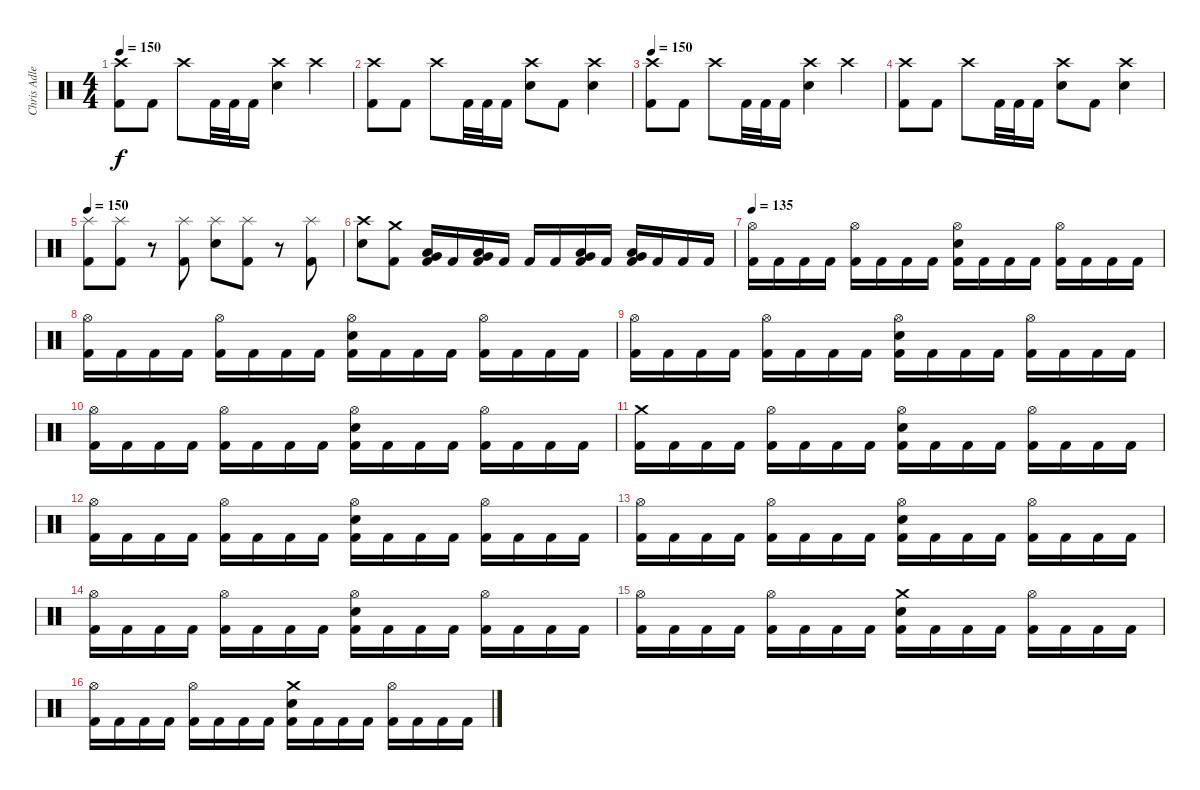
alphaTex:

\track ("Chris Adler" "Chris Adle") {instrument percussion}
\staff {score}
\articulation defaults
\ts (4 4)
\tempo 150
\clef neutral
\ks c
("Crash high (hit)" "Kick (hit) 2").8{dy f} "Kick (hit) 2".8 "Crash high (hit)".8 "Kick (hit) 2".32 "Kick (hit) 2".32 "Kick (hit) 2".16 ("Crash high (hit)" "Snare (hit) 2").4 "Crash high (hit)".4 |
("Crash high (hit)" "Kick (hit) 2").8 "Kick (hit) 2".8 "Crash high (hit)".8 "Kick (hit) 2".32 "Kick (hit) 2".32 "Kick (hit) 2".16 ("Crash high (hit)" "Snare (hit) 2").8 "Kick (hit) 2".8 ("Crash high (hit)" "Snare (hit) 2").4 |
\tempo 150
("Crash high (hit)" "Kick (hit) 2").8 "Kick (hit) 2".8 "Crash high (hit)".8 "Kick (hit) 2".32 "Kick (hit) 2".32 "Kick (hit) 2".16 ("Crash high (hit)" "Snare (hit) 2").4 "Crash high (hit)".4 |
("Crash high (hit)" "Kick (hit) 2").8 "Kick (hit) 2".8 "Crash high (hit)".8 "Kick (hit) 2".32 "Kick (hit) 2".32 "Kick (hit) 2".16 ("Crash high (hit)" "Snare (hit) 2").8 "Kick (hit) 2".8 ("Crash high (hit)" "Snare (hit) 2").4 |
\tempo 150
("Splash (hit)" "Kick (hit) 2").8 ("Splash (hit)" "Kick (hit) 2").8 r.8 ("Splash (hit)" "Kick (hit) 2").8 ("Splash (hit)" "Snare (hit) 2").8 ("Splash (hit)" "Kick (hit) 2").8 r.8 ("Splash (hit)" "Kick (hit) 2").8 |
("Crash high (hit)" "Snare (hit) 2").8 ("Crash medium (hit)" "Kick (hit) 2").8 ("Low Tom (hit)" "Very Low Tom (hit)" "Kick (hit) 2").16 "Kick (hit) 2".16 ("Low Tom (hit)" "Very Low Tom (hit)" "Kick (hit) 2").16 "Kick (hit) 2".16 "Kick (hit) 2".16 "Kick (hit) 2".16 ("Low Tom (hit)" "Very Low Tom (hit)" "Kick (hit) 2").16 "Kick (hit) 2".16 ("Low Tom (hit)" "Very Low Tom (hit)" "Kick (hit) 2").16 "Kick (hit) 2".16 "Kick (hit) 2".16 "Kick (hit) 2".16 |
\tempo 120
\tempo 135
("Hi-Hat (open)" "Kick (hit) 2").16 "Kick (hit) 2".16 "Kick (hit) 2".16 "Kick (hit) 2".16 ("Hi-Hat (open)" "Kick (hit) 2").16 "Kick (hit) 2".16 "Kick (hit) 2".16 "Kick (hit) 2".16 ("Hi-Hat (open)" "Snare (hit) 2" "Kick (hit) 2").16 "Kick (hit) 2".16 "Kick (hit) 2".16 "Kick (hit) 2".16 ("Hi-Hat (open)" "Kick (hit) 2").16 "Kick (hit) 2".16 "Kick (hit) 2".16 "Kick (hit) 2".16 |
("Hi-Hat (open)" "Kick (hit) 2").16 "Kick (hit) 2".16 "Kick (hit) 2".16 "Kick (hit) 2".16 ("Hi-Hat (open)" "Kick (hit) 2").16 "Kick (hit) 2".16 "Kick (hit) 2".16 "Kick (hit) 2".16 ("Hi-Hat (open)" "Snare (hit) 2" "Kick (hit) 2").16 "Kick (hit) 2".16 "Kick (hit) 2".16 "Kick (hit) 2".16 ("Hi-Hat (open)" "Kick (hit) 2").16 "Kick (hit) 2".16 "Kick (hit) 2".16 "Kick (hit) 2".16 |
("Hi-Hat (open)" "Kick (hit) 2").16 "Kick (hit) 2".16 "Kick (hit) 2".16 "Kick (hit) 2".16 ("Hi-Hat (open)" "Kick (hit) 2").16 "Kick (hit) 2".16 "Kick (hit) 2".16 "Kick (hit) 2".16 ("Hi-Hat (open)" "Snare (hit) 2" "Kick (hit) 2").16 "Kick (hit) 2".16 "Kick (hit) 2".16 "Kick (hit) 2".16 ("Hi-Hat (open)" "Kick (hit) 2").16 "Kick (hit) 2".16 "Kick (hit) 2".16 "Kick (hit) 2".16 |
("Hi-Hat (open)" "Kick (hit) 2").16 "Kick (hit) 2".16 "Kick (hit) 2".16 "Kick (hit) 2".16 ("Hi-Hat (open)" "Kick (hit) 2").16 "Kick (hit) 2".16 "Kick (hit) 2".16 "Kick (hit) 2".16 ("Hi-Hat (open)" "Snare (hit) 2" "Kick (hit) 2").16 "Kick (hit) 2".16 "Kick (hit) 2".16 "Kick (hit) 2".16 ("Hi-Hat (open)" "Kick (hit) 2").16 "Kick (hit) 2".16 "Kick (hit) 2".16 "Kick (hit) 2".16 |
("Crash medium (hit)" "Kick (hit) 2").16 "Kick (hit) 2".16 "Kick (hit) 2".16 "Kick (hit) 2".16 ("Hi-Hat (open)" "Kick (hit) 2").16 "Kick (hit) 2".16 "Kick (hit) 2".16 "Kick (hit) 2".16 ("Hi-Hat (open)" "Snare (hit) 2" "Kick (hit) 2").16 "Kick (hit) 2".16 "Kick (hit) 2".16 "Kick (hit) 2".16 ("Hi-Hat (open)" "Kick (hit) 2").16 "Kick (hit) 2".16 "Kick (hit) 2".16 "Kick (hit) 2".16 |
("Hi-Hat (open)" "Kick (hit) 2").16 "Kick (hit) 2".16 "Kick (hit) 2".16 "Kick (hit) 2".16 ("Hi-Hat (open)" "Kick (hit) 2").16 "Kick (hit) 2".16 "Kick (hit) 2".16 "Kick (hit) 2".16 ("Hi-Hat (open)" "Snare (hit) 2" "Kick (hit) 2").16 "Kick (hit) 2".16 "Kick (hit) 2".16 "Kick (hit) 2".16 ("Hi-Hat (open)" "Kick (hit) 2").16 "Kick (hit) 2".16 "Kick (hit) 2".16 "Kick (hit) 2".16 |
("Hi-Hat (open)" "Kick (hit) 2").16 "Kick (hit) 2".16 "Kick (hit) 2".16 "Kick (hit) 2".16 ("Hi-Hat (open)" "Kick (hit) 2").16 "Kick (hit) 2".16 "Kick (hit) 2".16 "Kick (hit) 2".16 ("Hi-Hat (open)" "Snare (hit) 2" "Kick (hit) 2").16 "Kick (hit) 2".16 "Kick (hit) 2".16 "Kick (hit) 2".16 ("Hi-Hat (open)" "Kick (hit) 2").16 "Kick (hit) 2".16 "Kick (hit) 2".16 "Kick (hit) 2".16 |
("Hi-Hat (open)" "Kick (hit) 2").16 "Kick (hit) 2".16 "Kick (hit) 2".16 "Kick (hit) 2".16 ("Hi-Hat (open)" "Kick (hit) 2").16 "Kick (hit) 2".16 "Kick (hit) 2".16 "Kick (hit) 2".16 ("Hi-Hat (open)" "Snare (hit) 2" "Kick (hit) 2").16 "Kick (hit) 2".16 "Kick (hit) 2".16 "Kick (hit) 2".16 ("Hi-Hat (open)" "Kick (hit) 2").16 "Kick (hit) 2".16 "Kick (hit) 2".16 "Kick (hit) 2".16 |
("Hi-Hat (open)" "Kick (hit) 2").16 "Kick (hit) 2".16 "Kick (hit) 2".16 "Kick (hit) 2".16 ("Hi-Hat (open)" "Kick (hit) 2").16 "Kick (hit) 2".16 "Kick (hit) 2".16 "Kick (hit) 2".16 ("Crash medium (hit)" "Snare (hit) 2" "Kick (hit) 2").16 "Kick (hit) 2".16 "Kick (hit) 2".16 "Kick (hit) 2".16 ("Hi-Hat (open)" "Kick (hit) 2").16 "Kick (hit) 2".16 "Kick (hit) 2".16 "Kick (hit) 2".16 |
("Hi-Hat (open)" "Kick (hit) 2").16 "Kick (hit) 2".16 "Kick (hit) 2".16 "Kick (hit) 2".16 ("Hi-Hat (open)" "Kick (hit) 2").16 "Kick (hit) 2".16 "Kick (hit) 2".16 "Kick (hit) 2".16 ("Crash medium (hit)" "Snare (hit) 2" "Kick (hit) 2").16 "Kick (hit) 2".16 "Kick (hit) 2".16 "Kick (hit) 2".16 ("Hi-Hat (open)" "Kick (hit) 2").16 "Kick (hit) 2".16 "Kick (hit) 2".16 "Kick (hit) 2".16
